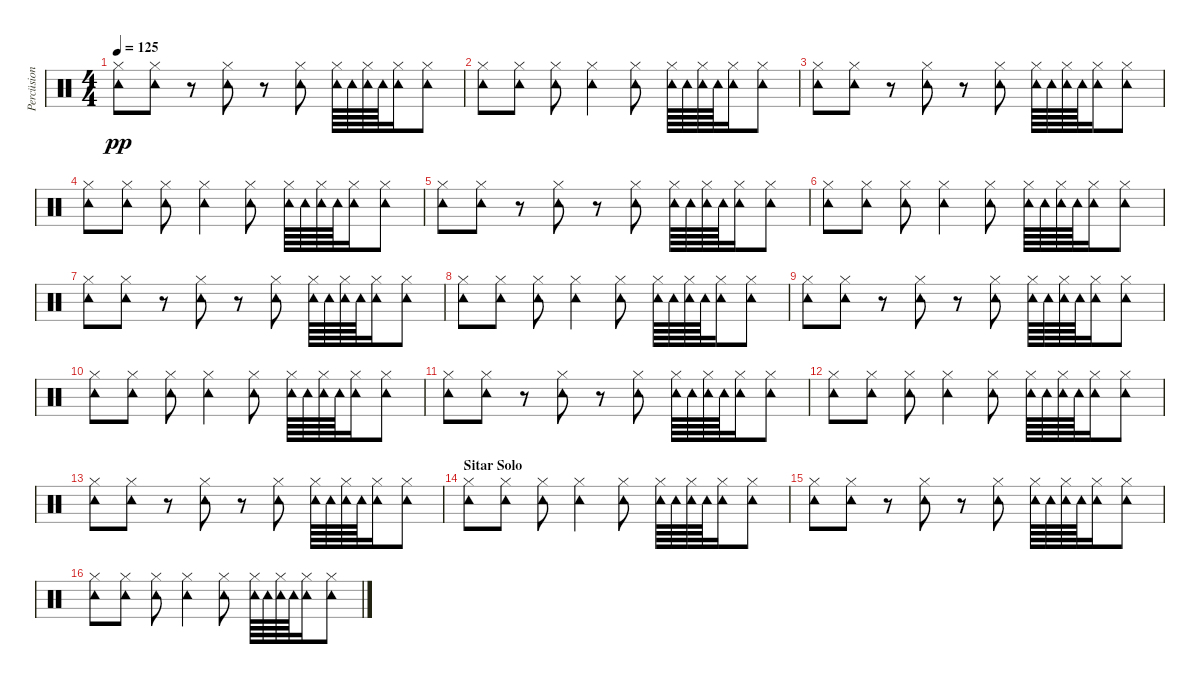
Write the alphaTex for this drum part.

\track ("Percüsion" "Percüsion") {instrument percussion}
\staff {score}
\articulation defaults
\ts (4 4)
\tempo 125
\clef neutral
\ks c
("Hi-Hat (closed)" "Tambourine (hit)").8{dy pp} ("Hi-Hat (closed)" "Tambourine (hit)").8 r.8 ("Hi-Hat (closed)" "Tambourine (hit)").8 r.8 ("Hi-Hat (closed)" "Tambourine (hit)").8 ("Hi-Hat (closed)" "Tambourine (hit)").64 "Tambourine (hit)".64 ("Hi-Hat (closed)" "Tambourine (hit)").64 "Tambourine (hit)".64 ("Hi-Hat (closed)" "Tambourine (hit)").16 ("Hi-Hat (closed)" "Tambourine (hit)").8 |
("Hi-Hat (closed)" "Tambourine (hit)").8 ("Hi-Hat (closed)" "Tambourine (hit)").8 ("Hi-Hat (closed)" "Tambourine (hit)").8 ("Hi-Hat (closed)" "Tambourine (hit)").4 ("Hi-Hat (closed)" "Tambourine (hit)").8 ("Hi-Hat (closed)" "Tambourine (hit)").64 "Tambourine (hit)".64 ("Hi-Hat (closed)" "Tambourine (hit)").64 "Tambourine (hit)".64 ("Hi-Hat (closed)" "Tambourine (hit)").16 ("Hi-Hat (closed)" "Tambourine (hit)").8 |
("Hi-Hat (closed)" "Tambourine (hit)").8 ("Hi-Hat (closed)" "Tambourine (hit)").8 r.8 ("Hi-Hat (closed)" "Tambourine (hit)").8 r.8 ("Hi-Hat (closed)" "Tambourine (hit)").8 ("Hi-Hat (closed)" "Tambourine (hit)").64 "Tambourine (hit)".64 ("Hi-Hat (closed)" "Tambourine (hit)").64 "Tambourine (hit)".64 ("Hi-Hat (closed)" "Tambourine (hit)").16 ("Hi-Hat (closed)" "Tambourine (hit)").8 |
("Hi-Hat (closed)" "Tambourine (hit)").8 ("Hi-Hat (closed)" "Tambourine (hit)").8 ("Hi-Hat (closed)" "Tambourine (hit)").8 ("Hi-Hat (closed)" "Tambourine (hit)").4 ("Hi-Hat (closed)" "Tambourine (hit)").8 ("Hi-Hat (closed)" "Tambourine (hit)").64 "Tambourine (hit)".64 ("Hi-Hat (closed)" "Tambourine (hit)").64 "Tambourine (hit)".64 ("Hi-Hat (closed)" "Tambourine (hit)").16 ("Hi-Hat (closed)" "Tambourine (hit)").8 |
("Hi-Hat (closed)" "Tambourine (hit)").8 ("Hi-Hat (closed)" "Tambourine (hit)").8 r.8 ("Hi-Hat (closed)" "Tambourine (hit)").8 r.8 ("Hi-Hat (closed)" "Tambourine (hit)").8 ("Hi-Hat (closed)" "Tambourine (hit)").64 "Tambourine (hit)".64 ("Hi-Hat (closed)" "Tambourine (hit)").64 "Tambourine (hit)".64 ("Hi-Hat (closed)" "Tambourine (hit)").16 ("Hi-Hat (closed)" "Tambourine (hit)").8 |
("Hi-Hat (closed)" "Tambourine (hit)").8 ("Hi-Hat (closed)" "Tambourine (hit)").8 ("Hi-Hat (closed)" "Tambourine (hit)").8 ("Hi-Hat (closed)" "Tambourine (hit)").4 ("Hi-Hat (closed)" "Tambourine (hit)").8 ("Hi-Hat (closed)" "Tambourine (hit)").64 "Tambourine (hit)".64 ("Hi-Hat (closed)" "Tambourine (hit)").64 "Tambourine (hit)".64 ("Hi-Hat (closed)" "Tambourine (hit)").16 ("Hi-Hat (closed)" "Tambourine (hit)").8 |
("Hi-Hat (closed)" "Tambourine (hit)").8 ("Hi-Hat (closed)" "Tambourine (hit)").8 r.8 ("Hi-Hat (closed)" "Tambourine (hit)").8 r.8 ("Hi-Hat (closed)" "Tambourine (hit)").8 ("Hi-Hat (closed)" "Tambourine (hit)").64 "Tambourine (hit)".64 ("Hi-Hat (closed)" "Tambourine (hit)").64 "Tambourine (hit)".64 ("Hi-Hat (closed)" "Tambourine (hit)").16 ("Hi-Hat (closed)" "Tambourine (hit)").8 |
("Hi-Hat (closed)" "Tambourine (hit)").8 ("Hi-Hat (closed)" "Tambourine (hit)").8 ("Hi-Hat (closed)" "Tambourine (hit)").8 ("Hi-Hat (closed)" "Tambourine (hit)").4 ("Hi-Hat (closed)" "Tambourine (hit)").8 ("Hi-Hat (closed)" "Tambourine (hit)").64 "Tambourine (hit)".64 ("Hi-Hat (closed)" "Tambourine (hit)").64 "Tambourine (hit)".64 ("Hi-Hat (closed)" "Tambourine (hit)").16 ("Hi-Hat (closed)" "Tambourine (hit)").8 |
("Hi-Hat (closed)" "Tambourine (hit)").8 ("Hi-Hat (closed)" "Tambourine (hit)").8 r.8 ("Hi-Hat (closed)" "Tambourine (hit)").8 r.8 ("Hi-Hat (closed)" "Tambourine (hit)").8 ("Hi-Hat (closed)" "Tambourine (hit)").64 "Tambourine (hit)".64 ("Hi-Hat (closed)" "Tambourine (hit)").64 "Tambourine (hit)".64 ("Hi-Hat (closed)" "Tambourine (hit)").16 ("Hi-Hat (closed)" "Tambourine (hit)").8 |
("Hi-Hat (closed)" "Tambourine (hit)").8 ("Hi-Hat (closed)" "Tambourine (hit)").8 ("Hi-Hat (closed)" "Tambourine (hit)").8 ("Hi-Hat (closed)" "Tambourine (hit)").4 ("Hi-Hat (closed)" "Tambourine (hit)").8 ("Hi-Hat (closed)" "Tambourine (hit)").64 "Tambourine (hit)".64 ("Hi-Hat (closed)" "Tambourine (hit)").64 "Tambourine (hit)".64 ("Hi-Hat (closed)" "Tambourine (hit)").16 ("Hi-Hat (closed)" "Tambourine (hit)").8 |
("Hi-Hat (closed)" "Tambourine (hit)").8 ("Hi-Hat (closed)" "Tambourine (hit)").8 r.8 ("Hi-Hat (closed)" "Tambourine (hit)").8 r.8 ("Hi-Hat (closed)" "Tambourine (hit)").8 ("Hi-Hat (closed)" "Tambourine (hit)").64 "Tambourine (hit)".64 ("Hi-Hat (closed)" "Tambourine (hit)").64 "Tambourine (hit)".64 ("Hi-Hat (closed)" "Tambourine (hit)").16 ("Hi-Hat (closed)" "Tambourine (hit)").8 |
("Hi-Hat (closed)" "Tambourine (hit)").8 ("Hi-Hat (closed)" "Tambourine (hit)").8 ("Hi-Hat (closed)" "Tambourine (hit)").8 ("Hi-Hat (closed)" "Tambourine (hit)").4 ("Hi-Hat (closed)" "Tambourine (hit)").8 ("Hi-Hat (closed)" "Tambourine (hit)").64 "Tambourine (hit)".64 ("Hi-Hat (closed)" "Tambourine (hit)").64 "Tambourine (hit)".64 ("Hi-Hat (closed)" "Tambourine (hit)").16 ("Hi-Hat (closed)" "Tambourine (hit)").8 |
("Hi-Hat (closed)" "Tambourine (hit)").8 ("Hi-Hat (closed)" "Tambourine (hit)").8 r.8 ("Hi-Hat (closed)" "Tambourine (hit)").8 r.8 ("Hi-Hat (closed)" "Tambourine (hit)").8 ("Hi-Hat (closed)" "Tambourine (hit)").64 "Tambourine (hit)".64 ("Hi-Hat (closed)" "Tambourine (hit)").64 "Tambourine (hit)".64 ("Hi-Hat (closed)" "Tambourine (hit)").16 ("Hi-Hat (closed)" "Tambourine (hit)").8 |
\section ("" "Sitar Solo")
("Hi-Hat (closed)" "Tambourine (hit)").8 ("Hi-Hat (closed)" "Tambourine (hit)").8 ("Hi-Hat (closed)" "Tambourine (hit)").8 ("Hi-Hat (closed)" "Tambourine (hit)").4 ("Hi-Hat (closed)" "Tambourine (hit)").8 ("Hi-Hat (closed)" "Tambourine (hit)").64 "Tambourine (hit)".64 ("Hi-Hat (closed)" "Tambourine (hit)").64 "Tambourine (hit)".64 ("Hi-Hat (closed)" "Tambourine (hit)").16 ("Hi-Hat (closed)" "Tambourine (hit)").8 |
("Hi-Hat (closed)" "Tambourine (hit)").8 ("Hi-Hat (closed)" "Tambourine (hit)").8 r.8 ("Hi-Hat (closed)" "Tambourine (hit)").8 r.8 ("Hi-Hat (closed)" "Tambourine (hit)").8 ("Hi-Hat (closed)" "Tambourine (hit)").64 "Tambourine (hit)".64 ("Hi-Hat (closed)" "Tambourine (hit)").64 "Tambourine (hit)".64 ("Hi-Hat (closed)" "Tambourine (hit)").16 ("Hi-Hat (closed)" "Tambourine (hit)").8 |
("Hi-Hat (closed)" "Tambourine (hit)").8 ("Hi-Hat (closed)" "Tambourine (hit)").8 ("Hi-Hat (closed)" "Tambourine (hit)").8 ("Hi-Hat (closed)" "Tambourine (hit)").4 ("Hi-Hat (closed)" "Tambourine (hit)").8 ("Hi-Hat (closed)" "Tambourine (hit)").64 "Tambourine (hit)".64 ("Hi-Hat (closed)" "Tambourine (hit)").64 "Tambourine (hit)".64 ("Hi-Hat (closed)" "Tambourine (hit)").16 ("Hi-Hat (closed)" "Tambourine (hit)").8
